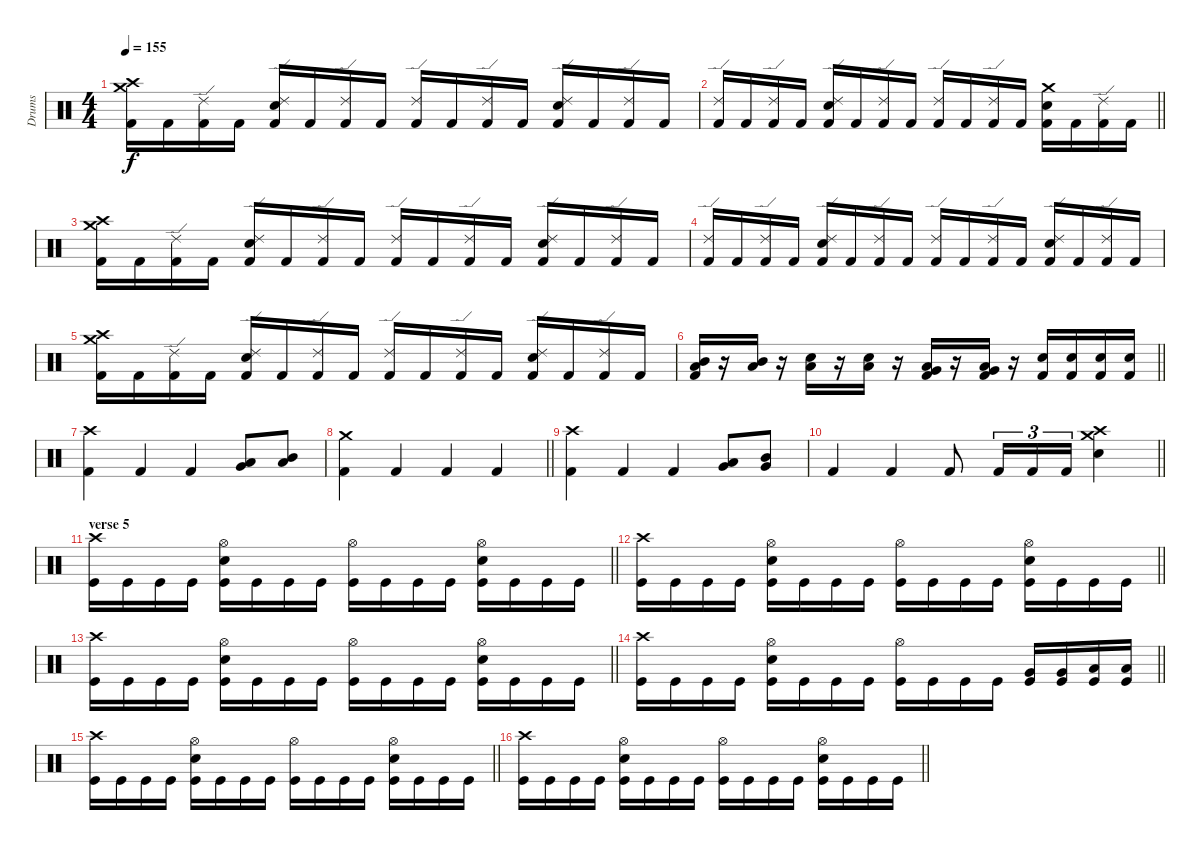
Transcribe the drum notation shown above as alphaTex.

\track ("Drums" "Drums") {instrument percussion}
\staff {score}
\articulation defaults
\ts (4 4)
\tempo 155
\clef neutral
\ks c
("Crash high (hit)" "Crash medium (hit)" "Kick (hit) 2").16{dy f} "Kick (hit) 2".16 ("Ride (edge) 2" "Kick (hit) 2").16 "Kick (hit) 2".16 ("Ride (edge) 2" "Electric Snare (hit)" "Kick (hit) 2").16 "Kick (hit) 2".16 ("Ride (edge) 2" "Kick (hit) 2").16 "Kick (hit) 2".16 ("Ride (edge) 2" "Kick (hit) 2").16 "Kick (hit) 2".16 ("Ride (edge) 2" "Kick (hit) 2").16 "Kick (hit) 2".16 ("Ride (edge) 2" "Electric Snare (hit)" "Kick (hit) 2").16 "Kick (hit) 2".16 ("Ride (edge) 2" "Kick (hit) 2").16 "Kick (hit) 2".16 |
\barLineRight lightlight
("Ride (edge) 2" "Kick (hit) 2").16 "Kick (hit) 2".16 ("Ride (edge) 2" "Kick (hit) 2").16 "Kick (hit) 2".16 ("Ride (edge) 2" "Electric Snare (hit)" "Kick (hit) 2").16 "Kick (hit) 2".16 ("Ride (edge) 2" "Kick (hit) 2").16 "Kick (hit) 2".16 ("Ride (edge) 2" "Kick (hit) 2").16 "Kick (hit) 2".16 ("Ride (edge) 2" "Kick (hit) 2").16 "Kick (hit) 2".16 ("Crash medium (hit)" "Electric Snare (hit)" "Kick (hit) 2").16 "Kick (hit) 2".16 ("Ride (edge) 2" "Kick (hit) 2").16 "Kick (hit) 2".16 |
("Crash high (hit)" "Crash medium (hit)" "Kick (hit) 2").16 "Kick (hit) 2".16 ("Ride (edge) 2" "Kick (hit) 2").16 "Kick (hit) 2".16 ("Ride (edge) 2" "Electric Snare (hit)" "Kick (hit) 2").16 "Kick (hit) 2".16 ("Ride (edge) 2" "Kick (hit) 2").16 "Kick (hit) 2".16 ("Ride (edge) 2" "Kick (hit) 2").16 "Kick (hit) 2".16 ("Ride (edge) 2" "Kick (hit) 2").16 "Kick (hit) 2".16 ("Ride (edge) 2" "Electric Snare (hit)" "Kick (hit) 2").16 "Kick (hit) 2".16 ("Ride (edge) 2" "Kick (hit) 2").16 "Kick (hit) 2".16 |
("Ride (edge) 2" "Kick (hit) 2").16 "Kick (hit) 2".16 ("Ride (edge) 2" "Kick (hit) 2").16 "Kick (hit) 2".16 ("Ride (edge) 2" "Electric Snare (hit)" "Kick (hit) 2").16 "Kick (hit) 2".16 ("Ride (edge) 2" "Kick (hit) 2").16 "Kick (hit) 2".16 ("Ride (edge) 2" "Kick (hit) 2").16 "Kick (hit) 2".16 ("Ride (edge) 2" "Kick (hit) 2").16 "Kick (hit) 2".16 ("Ride (edge) 2" "Electric Snare (hit)" "Kick (hit) 2").16 "Kick (hit) 2".16 ("Ride (edge) 2" "Kick (hit) 2").16 "Kick (hit) 2".16 |
("Crash high (hit)" "Crash medium (hit)" "Kick (hit) 2").16 "Kick (hit) 2".16 ("Ride (edge) 2" "Kick (hit) 2").16 "Kick (hit) 2".16 ("Ride (edge) 2" "Electric Snare (hit)" "Kick (hit) 2").16 "Kick (hit) 2".16 ("Ride (edge) 2" "Kick (hit) 2").16 "Kick (hit) 2".16 ("Ride (edge) 2" "Kick (hit) 2").16 "Kick (hit) 2".16 ("Ride (edge) 2" "Kick (hit) 2").16 "Kick (hit) 2".16 ("Ride (edge) 2" "Electric Snare (hit)" "Kick (hit) 2").16 "Kick (hit) 2".16 ("Ride (edge) 2" "Kick (hit) 2").16 "Kick (hit) 2".16 |
\barLineRight lightlight
("Mid Tom (hit)" "Low Tom (hit)" "Kick (hit) 2").16 r.16 ("Mid Tom (hit)" "Low Tom (hit)").16 r.16 ("Low Tom (hit)" "Electric Snare (hit)").16 r.16 ("Low Tom (hit)" "Electric Snare (hit)").16 r.16 ("Low Tom (hit)" "Very Low Tom (hit)" "Kick (hit) 2").16 r.16 ("Low Tom (hit)" "Very Low Tom (hit)" "Kick (hit) 2").16 r.16 ("Electric Snare (hit)" "Kick (hit) 2").16 ("Electric Snare (hit)" "Kick (hit) 2").16 ("Electric Snare (hit)" "Kick (hit) 2").16 ("Electric Snare (hit)" "Kick (hit) 2").16 |
("Kick (hit) 2" "Crash high (hit)").4 "Kick (hit) 2".4 "Kick (hit) 2".4 ("Very Low Tom (hit)" "Low Tom (hit)").8 ("Mid Tom (hit)" "Low Tom (hit)").8 |
\barLineRight lightlight
("Kick (hit) 2" "Crash medium (hit)").4 "Kick (hit) 2".4 "Kick (hit) 2".4 "Kick (hit) 2".4 |
("Kick (hit) 2" "Crash high (hit)").4 "Kick (hit) 2".4 "Kick (hit) 2".4 ("Very Low Tom (hit)" "Low Tom (hit)").8 ("Very Low Tom (hit)" "Mid Tom (hit)").8 |
\barLineRight lightlight "Kick (hit) 2".4 "Kick (hit) 2".4 "Kick (hit) 2".8 "Kick (hit) 2".16{tu (3 2)} "Kick (hit) 2".16{tu (3 2)} "Kick (hit) 2".16{tu (3 2)}
("Snare (hit) 2" "Crash medium (hit)" "Crash high (hit)").4 |
\section ("" "verse 5")
\barLineRight lightlight
("Crash high (hit)" "Kick (hit)").16 "Kick (hit)".16 "Kick (hit)".16 "Kick (hit)".16 ("Hi-Hat (open)" "Snare (hit) 2" "Kick (hit)").16 "Kick (hit)".16 "Kick (hit)".16 "Kick (hit)".16 ("Hi-Hat (open)" "Kick (hit)").16 "Kick (hit)".16 "Kick (hit)".16 "Kick (hit)".16 ("Hi-Hat (open)" "Snare (hit) 2" "Kick (hit)").16 "Kick (hit)".16 "Kick (hit)".16 "Kick (hit)".16 |
\barLineRight lightlight
("Crash high (hit)" "Kick (hit)").16 "Kick (hit)".16 "Kick (hit)".16 "Kick (hit)".16 ("Hi-Hat (open)" "Snare (hit) 2" "Kick (hit)").16 "Kick (hit)".16 "Kick (hit)".16 "Kick (hit)".16 ("Hi-Hat (open)" "Kick (hit)").16 "Kick (hit)".16 "Kick (hit)".16 "Kick (hit)".16 ("Hi-Hat (open)" "Snare (hit) 2" "Kick (hit)").16 "Kick (hit)".16 "Kick (hit)".16 "Kick (hit)".16 |
\barLineRight lightlight
("Crash high (hit)" "Kick (hit)").16 "Kick (hit)".16 "Kick (hit)".16 "Kick (hit)".16 ("Hi-Hat (open)" "Snare (hit) 2" "Kick (hit)").16 "Kick (hit)".16 "Kick (hit)".16 "Kick (hit)".16 ("Hi-Hat (open)" "Kick (hit)").16 "Kick (hit)".16 "Kick (hit)".16 "Kick (hit)".16 ("Hi-Hat (open)" "Snare (hit) 2" "Kick (hit)").16 "Kick (hit)".16 "Kick (hit)".16 "Kick (hit)".16 |
\barLineRight lightlight
("Crash high (hit)" "Kick (hit)").16 "Kick (hit)".16 "Kick (hit)".16 "Kick (hit)".16 ("Hi-Hat (open)" "Snare (hit) 2" "Kick (hit)").16 "Kick (hit)".16 "Kick (hit)".16 "Kick (hit)".16 ("Hi-Hat (open)" "Kick (hit)").16 "Kick (hit)".16 "Kick (hit)".16 "Kick (hit)".16 ("Very Low Tom (hit)" "Kick (hit)").16 ("Very Low Tom (hit)" "Kick (hit)").16 ("Low Tom (hit)" "Kick (hit)").16 ("Low Tom (hit)" "Kick (hit)").16 |
\barLineRight lightlight
("Crash high (hit)" "Kick (hit)").16 "Kick (hit)".16 "Kick (hit)".16 "Kick (hit)".16 ("Hi-Hat (open)" "Snare (hit) 2" "Kick (hit)").16 "Kick (hit)".16 "Kick (hit)".16 "Kick (hit)".16 ("Hi-Hat (open)" "Kick (hit)").16 "Kick (hit)".16 "Kick (hit)".16 "Kick (hit)".16 ("Hi-Hat (open)" "Snare (hit) 2" "Kick (hit)").16 "Kick (hit)".16 "Kick (hit)".16 "Kick (hit)".16 |
\barLineRight lightlight
("Crash high (hit)" "Kick (hit)").16 "Kick (hit)".16 "Kick (hit)".16 "Kick (hit)".16 ("Hi-Hat (open)" "Snare (hit) 2" "Kick (hit)").16 "Kick (hit)".16 "Kick (hit)".16 "Kick (hit)".16 ("Hi-Hat (open)" "Kick (hit)").16 "Kick (hit)".16 "Kick (hit)".16 "Kick (hit)".16 ("Hi-Hat (open)" "Snare (hit) 2" "Kick (hit)").16 "Kick (hit)".16 "Kick (hit)".16 "Kick (hit)".16
